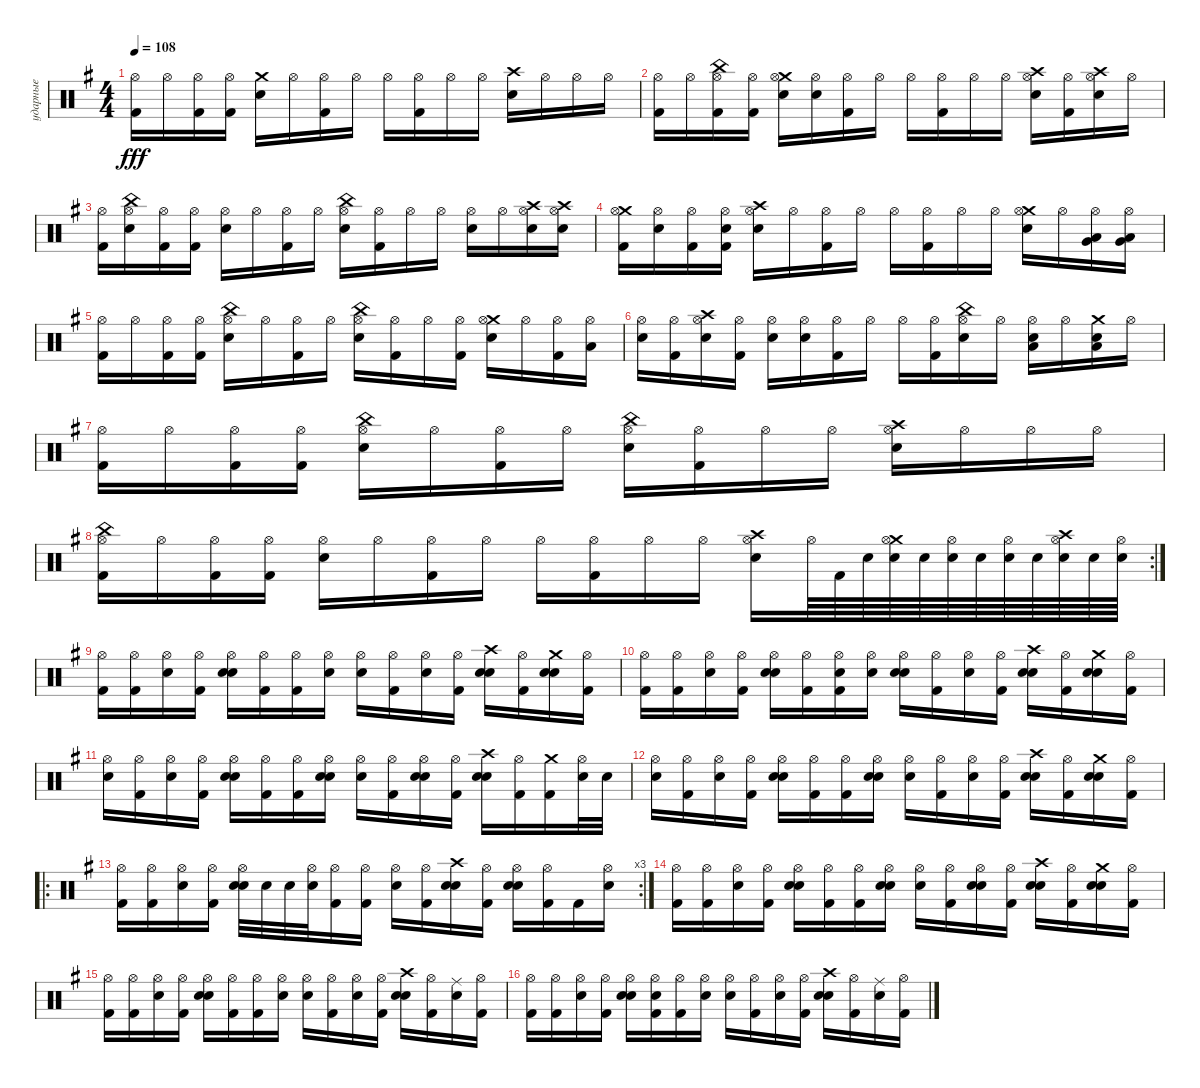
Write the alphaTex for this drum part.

\track ("ударные" "ударные") {instrument percussion}
\staff {score}
\articulation defaults
\ts (4 4)
\tempo 108
\clef neutral
\ks eminor
("Hi-Hat (open)" "Kick (hit) 2").16{dy fff} "Hi-Hat (open)".16 ("Hi-Hat (open)" "Kick (hit) 2").16 ("Hi-Hat (open)" "Kick (hit) 2").16 ("Crash medium (hit)" "Snare (hit) 2").16 "Hi-Hat (open)".16 ("Hi-Hat (open)" "Kick (hit) 2").16 "Hi-Hat (open)".16 "Hi-Hat (open)".16 ("Hi-Hat (open)" "Kick (hit) 2").16 "Hi-Hat (open)".16 "Hi-Hat (open)".16 ("Crash high (hit)" "Snare (hit) 2").16 "Hi-Hat (open)".16 "Hi-Hat (open)".16 "Hi-Hat (open)".16 |
("Hi-Hat (open)" "Kick (hit) 2").16 "Hi-Hat (open)".16 ("China (hit)" "Hi-Hat (open)" "Kick (hit) 2").16 ("Hi-Hat (open)" "Kick (hit) 2").16 ("Crash medium (hit)" "Hi-Hat (open)" "Snare (hit) 2").16 ("Hi-Hat (open)" "Snare (hit) 2").16 ("Hi-Hat (open)" "Kick (hit) 2").16 "Hi-Hat (open)".16 "Hi-Hat (open)".16 ("Hi-Hat (open)" "Kick (hit) 2").16 "Hi-Hat (open)".16 "Hi-Hat (open)".16 ("Crash high (hit)" "Hi-Hat (open)" "Snare (hit) 2").16 ("Hi-Hat (open)" "Kick (hit) 2").16 ("Crash high (hit)" "Hi-Hat (open)" "Snare (hit) 2").16 "Hi-Hat (open)".16 |
("Hi-Hat (open)" "Kick (hit) 2").16 ("China (hit)" "Hi-Hat (open)" "Snare (hit) 2").16 ("Hi-Hat (open)" "Kick (hit) 2").16 ("Hi-Hat (open)" "Kick (hit) 2").16 ("Hi-Hat (open)" "Snare (hit) 2").16 "Hi-Hat (open)".16 ("Hi-Hat (open)" "Kick (hit) 2").16 "Hi-Hat (open)".16 ("China (hit)" "Hi-Hat (open)" "Snare (hit) 2").16 ("Hi-Hat (open)" "Kick (hit) 2").16 "Hi-Hat (open)".16 "Hi-Hat (open)".16 ("Hi-Hat (open)" "Snare (hit) 2").16 "Hi-Hat (open)".16 ("Crash high (hit)" "Hi-Hat (open)" "Snare (hit) 2").16 ("Crash high (hit)" "Hi-Hat (open)" "Snare (hit) 2").16 |
("Crash medium (hit)" "Hi-Hat (open)" "Kick (hit) 2").16 ("Hi-Hat (open)" "Snare (hit) 2").16 ("Hi-Hat (open)" "Kick (hit) 2").16 ("Hi-Hat (open)" "Snare (hit) 2" "Kick (hit) 2").16 ("Crash high (hit)" "Hi-Hat (open)" "Snare (hit) 2").16 "Hi-Hat (open)".16 ("Hi-Hat (open)" "Kick (hit) 2").16 "Hi-Hat (open)".16 "Hi-Hat (open)".16 ("Hi-Hat (open)" "Kick (hit) 2").16 "Hi-Hat (open)".16 "Hi-Hat (open)".16 ("Crash medium (hit)" "Hi-Hat (open)" "Snare (hit) 2").16 "Hi-Hat (open)".16 ("Very Low Tom (hit)" "Hi-Hat (open)" "Low Floor Tom (hit)").16 ("Very Low Tom (hit)" "Hi-Hat (open)" "Low Floor Tom (hit)").16 |
("Hi-Hat (open)" "Kick (hit) 2").16 "Hi-Hat (open)".16 ("Hi-Hat (open)" "Kick (hit) 2").16 ("Hi-Hat (open)" "Kick (hit) 2").16 ("China (hit)" "Hi-Hat (open)" "Snare (hit) 2").16 "Hi-Hat (open)".16 ("Hi-Hat (open)" "Kick (hit) 2").16 "Hi-Hat (open)".16 ("China (hit)" "Hi-Hat (open)" "Snare (hit) 2").16 ("Hi-Hat (open)" "Kick (hit) 2").16 "Hi-Hat (open)".16 ("Hi-Hat (open)" "Kick (hit) 2").16 ("Crash medium (hit)" "Hi-Hat (open)" "Snare (hit) 2").16 "Hi-Hat (open)".16 ("Hi-Hat (open)" "Kick (hit) 2").16 ("Hi-Hat (open)" "Low Tom (hit)").16 |
("Hi-Hat (open)" "Snare (hit) 2").16 ("Hi-Hat (open)" "Kick (hit) 2").16 ("Crash high (hit)" "Hi-Hat (open)" "Snare (hit) 2").16 ("Hi-Hat (open)" "Kick (hit) 2").16 ("Hi-Hat (open)" "Snare (hit) 2").16 ("Hi-Hat (open)" "Snare (hit) 2").16 ("Hi-Hat (open)" "Kick (hit) 2").16 "Hi-Hat (open)".16 "Hi-Hat (open)".16 ("Hi-Hat (open)" "Kick (hit) 2").16 ("China (hit)" "Hi-Hat (open)" "Snare (hit) 2").16 "Hi-Hat (open)".16 ("Hi-Hat (open)" "Low Floor Tom (hit)" "Snare (hit) 2").16 "Hi-Hat (open)".16 ("Crash medium (hit)" "Low Floor Tom (hit)" "Snare (hit) 2").16 "Hi-Hat (open)".16 |
("Hi-Hat (open)" "Kick (hit) 2").16 "Hi-Hat (open)".16 ("Hi-Hat (open)" "Kick (hit) 2").16 ("Hi-Hat (open)" "Kick (hit) 2").16 ("China (hit)" "Hi-Hat (open)" "Snare (hit) 2").16 "Hi-Hat (open)".16 ("Hi-Hat (open)" "Kick (hit) 2").16 "Hi-Hat (open)".16 ("China (hit)" "Hi-Hat (open)" "Snare (hit) 2").16 ("Hi-Hat (open)" "Kick (hit) 2").16 "Hi-Hat (open)".16 "Hi-Hat (open)".16 ("Crash high (hit)" "Hi-Hat (open)" "Snare (hit) 2").16 "Hi-Hat (open)".16 "Hi-Hat (open)".16 "Hi-Hat (open)".16 |
\rc 2
("China (hit)" "Hi-Hat (open)" "Kick (hit) 2").16 "Hi-Hat (open)".16 ("Hi-Hat (open)" "Kick (hit) 2").16 ("Hi-Hat (open)" "Kick (hit) 2").16 ("Hi-Hat (open)" "Snare (hit) 2").16 "Hi-Hat (open)".16 ("Hi-Hat (open)" "Kick (hit) 2").16 "Hi-Hat (open)".16 "Hi-Hat (open)".16 ("Hi-Hat (open)" "Kick (hit) 2").16 "Hi-Hat (open)".16 "Hi-Hat (open)".16 ("Crash high (hit)" "Hi-Hat (open)" "Snare (hit) 2").16 "Hi-Hat (open)".64 "Kick (hit) 2".64 "Snare (hit) 2".64 ("Crash medium (hit)" "Hi-Hat (open)" "Snare (hit)").64 "Snare (hit) 2".64 ("Hi-Hat (open)" "Snare (hit) 2").64 "Snare (hit) 2".64 ("Hi-Hat (open)" "Snare (hit)").64 "Snare (hit) 2".64 ("Crash high (hit)" "Hi-Hat (open)" "Snare (hit) 2").64 "Snare (hit) 2".64 ("Hi-Hat (open)" "Snare (hit) 2").64 |
("Hi-Hat (open)" "Kick (hit) 2").16 ("Hi-Hat (open)" "Kick (hit) 2").16 ("Hi-Hat (open)" "Snare (hit)").16 ("Hi-Hat (open)" "Kick (hit) 2").16 ("Hi-Hat (open)" "Snare (hit) 2" "Snare (hit)").16 ("Hi-Hat (open)" "Kick (hit) 2").16 ("Hi-Hat (open)" "Kick (hit) 2").16 ("Hi-Hat (open)" "Snare (hit)").16 ("Hi-Hat (open)" "Snare (hit)").16 ("Hi-Hat (open)" "Kick (hit) 2").16 ("Hi-Hat (open)" "Snare (hit)").16 ("Hi-Hat (open)" "Kick (hit) 2").16 ("Crash high (hit)" "Snare (hit) 2" "Snare (hit)").16 ("Hi-Hat (open)" "Kick (hit) 2").16 ("Crash medium (hit)" "Snare (hit) 2" "Snare (hit)").16 ("Hi-Hat (open)" "Kick (hit) 2").16 |
("Hi-Hat (open)" "Kick (hit) 2").16 ("Hi-Hat (open)" "Kick (hit) 2").16 ("Hi-Hat (open)" "Snare (hit)").16 ("Hi-Hat (open)" "Kick (hit) 2").16 ("Hi-Hat (open)" "Snare (hit) 2" "Snare (hit)").16 ("Hi-Hat (open)" "Kick (hit) 2").16 ("Hi-Hat (open)" "Snare (hit) 2" "Kick (hit) 2").16 ("Hi-Hat (open)" "Snare (hit)").16 ("Hi-Hat (open)" "Snare (hit) 2" "Snare (hit)").16 ("Hi-Hat (open)" "Kick (hit) 2").16 ("Hi-Hat (open)" "Snare (hit)").16 ("Hi-Hat (open)" "Kick (hit) 2").16 ("Crash high (hit)" "Snare (hit) 2" "Snare (hit)").16 ("Hi-Hat (open)" "Kick (hit) 2").16 ("Crash medium (hit)" "Snare (hit) 2" "Snare (hit)").16 ("Hi-Hat (open)" "Kick (hit) 2").16 |
("Hi-Hat (open)" "Snare (hit) 2").16 ("Hi-Hat (open)" "Kick (hit) 2").16 ("Hi-Hat (open)" "Snare (hit)").16 ("Hi-Hat (open)" "Kick (hit) 2").16 ("Hi-Hat (open)" "Snare (hit) 2" "Snare (hit)").16 ("Hi-Hat (open)" "Kick (hit) 2").16 ("Hi-Hat (open)" "Kick (hit) 2").16 ("Hi-Hat (open)" "Snare (hit) 2" "Snare (hit)").16 ("Hi-Hat (open)" "Snare (hit)").16 ("Hi-Hat (open)" "Kick (hit) 2").16 ("Hi-Hat (open)" "Snare (hit) 2" "Snare (hit)").16 ("Hi-Hat (open)" "Kick (hit) 2").16 ("Crash high (hit)" "Snare (hit) 2" "Snare (hit)").16 ("Hi-Hat (open)" "Kick (hit) 2").16 ("Crash medium (hit)" "Kick (hit) 2").16 ("Hi-Hat (open)" "Snare (hit) 2").32 "Snare (hit) 2".32 |
("Hi-Hat (open)" "Snare (hit) 2").16 ("Hi-Hat (open)" "Kick (hit) 2").16 ("Hi-Hat (open)" "Snare (hit)").16 ("Hi-Hat (open)" "Kick (hit) 2").16 ("Hi-Hat (open)" "Snare (hit) 2" "Snare (hit)").16 ("Hi-Hat (open)" "Kick (hit) 2").16 ("Hi-Hat (open)" "Kick (hit) 2").16 ("Hi-Hat (open)" "Snare (hit) 2" "Snare (hit)").16 ("Hi-Hat (open)" "Snare (hit)").16 ("Hi-Hat (open)" "Kick (hit) 2").16 ("Hi-Hat (open)" "Snare (hit)").16 ("Hi-Hat (open)" "Kick (hit) 2").16 ("Crash high (hit)" "Snare (hit) 2" "Snare (hit)").16 ("Hi-Hat (open)" "Kick (hit) 2").16 ("Crash medium (hit)" "Snare (hit) 2" "Snare (hit)").16 ("Hi-Hat (open)" "Kick (hit) 2").16 |
\ro
\rc 3
("Hi-Hat (open)" "Kick (hit) 2").16 ("Hi-Hat (open)" "Kick (hit) 2").16 ("Hi-Hat (open)" "Snare (hit)").16 ("Hi-Hat (open)" "Kick (hit) 2").16 ("Hi-Hat (open)" "Snare (hit) 2" "Snare (hit)").32 "Snare (hit) 2".32 "Snare (hit) 2".32 ("Hi-Hat (open)" "Snare (hit)").32 ("Hi-Hat (open)" "Kick (hit) 2").16 ("Hi-Hat (open)" "Kick (hit) 2").16 ("Hi-Hat (open)" "Snare (hit)").16 ("Hi-Hat (open)" "Kick (hit) 2").16 ("Crash high (hit)" "Snare (hit) 2" "Snare (hit)").16 ("Hi-Hat (open)" "Kick (hit) 2").16 ("Hi-Hat (open)" "Snare (hit) 2" "Snare (hit)").16 ("Hi-Hat (open)" "Kick (hit) 2").16 "Kick (hit) 2".16 ("Hi-Hat (open)" "Snare (hit) 2").16 |
("Hi-Hat (open)" "Kick (hit) 2").16 ("Hi-Hat (open)" "Kick (hit) 2").16 ("Hi-Hat (open)" "Snare (hit)").16 ("Hi-Hat (open)" "Kick (hit) 2").16 ("Hi-Hat (open)" "Snare (hit) 2" "Snare (hit)").16 ("Hi-Hat (open)" "Kick (hit) 2").16 ("Hi-Hat (open)" "Kick (hit) 2").16 ("Hi-Hat (open)" "Snare (hit) 2" "Snare (hit)").16 ("Hi-Hat (open)" "Snare (hit)").16 ("Hi-Hat (open)" "Kick (hit) 2").16 ("Hi-Hat (open)" "Snare (hit) 2" "Snare (hit)").16 ("Hi-Hat (open)" "Kick (hit) 2").16 ("Crash high (hit)" "Snare (hit) 2" "Snare (hit)").16 ("Hi-Hat (open)" "Kick (hit) 2").16 ("Crash medium (hit)" "Snare (hit) 2" "Snare (hit)").16 ("Hi-Hat (open)" "Kick (hit) 2").16 |
("Hi-Hat (open)" "Kick (hit) 2").16 ("Hi-Hat (open)" "Kick (hit) 2").16 ("Hi-Hat (open)" "Snare (hit)").16 ("Hi-Hat (open)" "Kick (hit) 2").16 ("Hi-Hat (open)" "Snare (hit) 2" "Snare (hit)").16 ("Hi-Hat (open)" "Kick (hit) 2").16 ("Hi-Hat (open)" "Kick (hit) 2").16 ("Hi-Hat (open)" "Snare (hit)").16 ("Hi-Hat (open)" "Snare (hit)").16 ("Hi-Hat (open)" "Kick (hit) 2").16 ("Hi-Hat (open)" "Snare (hit)").16 ("Hi-Hat (open)" "Kick (hit) 2").16 ("Crash high (hit)" "Snare (hit) 2" "Snare (hit)").16 ("Hi-Hat (open)" "Kick (hit) 2").16 ("Ride (middle)" "Snare (hit)").16 ("Hi-Hat (open)" "Kick (hit) 2").16 |
("Hi-Hat (open)" "Kick (hit) 2").16 ("Hi-Hat (open)" "Kick (hit) 2").16 ("Hi-Hat (open)" "Snare (hit)").16 ("Hi-Hat (open)" "Kick (hit) 2").16 ("Hi-Hat (open)" "Snare (hit) 2" "Snare (hit)").16 ("Hi-Hat (open)" "Snare (hit) 2" "Kick (hit) 2").16 ("Hi-Hat (open)" "Kick (hit) 2").16 ("Hi-Hat (open)" "Snare (hit)").16 ("Hi-Hat (open)" "Snare (hit)").16 ("Hi-Hat (open)" "Kick (hit) 2").16 ("Hi-Hat (open)" "Snare (hit)").16 ("Hi-Hat (open)" "Kick (hit) 2").16 ("Crash high (hit)" "Snare (hit) 2" "Snare (hit)").16 ("Hi-Hat (open)" "Kick (hit) 2").16 ("Ride (middle)" "Snare (hit)").16 ("Hi-Hat (open)" "Kick (hit) 2").16
